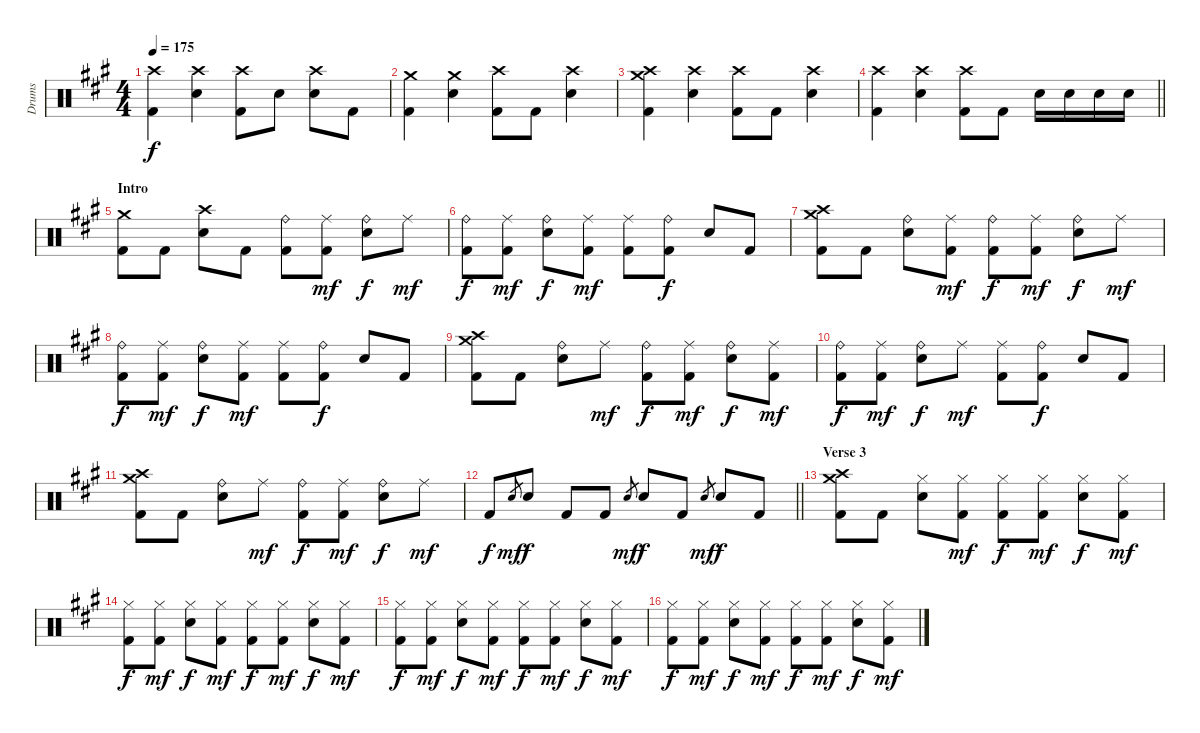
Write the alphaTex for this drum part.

\track ("Drums" "Drums") {instrument percussion}
\staff {score}
\articulation defaults
\ts (4 4)
\tempo 175
\clef neutral
\ks f#minor
("Crash high (hit)" "Kick (hit) 2").4{dy f} ("Crash high (hit)" "Electric Snare (hit)").4 ("Crash high (hit)" "Kick (hit) 2").8 "Electric Snare (hit)".8 ("Crash high (hit)" "Electric Snare (hit)").8 "Kick (hit) 2".8 |
("Crash medium (hit)" "Kick (hit) 2").4 ("Crash medium (hit)" "Electric Snare (hit)").4 ("Crash high (hit)" "Kick (hit) 2").8 "Kick (hit) 2".8 ("Crash high (hit)" "Electric Snare (hit)").4 |
("Crash high (hit)" "Crash medium (hit)" "Kick (hit) 2").4 ("Crash high (hit)" "Electric Snare (hit)").4 ("Crash high (hit)" "Kick (hit) 2").8 "Kick (hit) 2".8 ("Crash high (hit)" "Electric Snare (hit)").4 |
\barLineRight lightlight
("Crash high (hit)" "Kick (hit) 2").4 ("Crash high (hit)" "Electric Snare (hit)").4 ("Crash high (hit)" "Kick (hit) 2").8 "Kick (hit) 2".8 "Electric Snare (hit)".16 "Electric Snare (hit)".16 "Electric Snare (hit)".16 "Electric Snare (hit)".16 |
\section ("" "Intro")
("Crash medium (hit)" "Kick (hit) 2").8 "Kick (hit) 2".8 ("Crash high (hit)" "Electric Snare (hit)").8 "Kick (hit) 2".8 ("Ride (bell)" "Kick (hit) 2").8 ("Ride (middle)" "Kick (hit) 2").8{dy mf} ("Ride (bell)" "Electric Snare (hit)").8{dy f} "Ride (middle)".8{dy mf} |
("Ride (bell)" "Kick (hit) 2").8{dy f} ("Ride (middle)" "Kick (hit) 2").8{dy mf} ("Ride (bell)" "Electric Snare (hit)").8{dy f} ("Ride (middle)" "Kick (hit) 2").8{dy mf} ("Ride (middle)" "Kick (hit) 2").8 ("Ride (bell)" "Kick (hit) 2").8{dy f} "Electric Snare (hit)".8 "Kick (hit) 2".8 |
("Crash high (hit)" "Crash medium (hit)" "Kick (hit) 2").8 "Kick (hit) 2".8 ("Ride (bell)" "Electric Snare (hit)").8 ("Ride (middle)" "Kick (hit) 2").8{dy mf} ("Ride (bell)" "Kick (hit) 2").8{dy f} ("Ride (middle)" "Kick (hit) 2").8{dy mf} ("Ride (bell)" "Electric Snare (hit)").8{dy f} "Ride (middle)".8{dy mf} |
("Ride (bell)" "Kick (hit) 2").8{dy f} ("Ride (middle)" "Kick (hit) 2").8{dy mf} ("Ride (bell)" "Electric Snare (hit)").8{dy f} ("Ride (middle)" "Kick (hit) 2").8{dy mf} ("Ride (middle)" "Kick (hit) 2").8 ("Ride (bell)" "Kick (hit) 2").8{dy f} "Electric Snare (hit)".8 "Kick (hit) 2".8 |
("Crash high (hit)" "Crash medium (hit)" "Kick (hit) 2").8 "Kick (hit) 2".8 ("Ride (bell)" "Electric Snare (hit)").8 "Ride (middle)".8{dy mf} ("Ride (bell)" "Kick (hit) 2").8{dy f} ("Ride (middle)" "Kick (hit) 2").8{dy mf} ("Ride (bell)" "Electric Snare (hit)").8{dy f} ("Ride (middle)" "Kick (hit) 2").8{dy mf} |
("Ride (bell)" "Kick (hit) 2").8{dy f} ("Ride (middle)" "Kick (hit) 2").8{dy mf} ("Ride (bell)" "Electric Snare (hit)").8{dy f} "Ride (middle)".8{dy mf} ("Ride (middle)" "Kick (hit) 2").8 ("Ride (bell)" "Kick (hit) 2").8{dy f} "Electric Snare (hit)".8 "Kick (hit) 2".8 |
("Crash high (hit)" "Crash medium (hit)" "Kick (hit) 2").8 "Kick (hit) 2".8 ("Ride (bell)" "Electric Snare (hit)").8 "Ride (middle)".8{dy mf} ("Ride (bell)" "Kick (hit) 2").8{dy f} ("Ride (middle)" "Kick (hit) 2").8{dy mf} ("Ride (bell)" "Electric Snare (hit)").8{dy f} "Ride (middle)".8{dy mf} |
\barLineRight lightlight "Kick (hit) 2".8{dy f} "Electric Snare (hit)".8{gr dy mf} "Electric Snare (hit)".8{dy f} "Kick (hit) 2".8 "Kick (hit) 2".8 "Electric Snare (hit)".8{gr dy mf} "Electric Snare (hit)".8{dy f} "Kick (hit) 2".8 "Electric Snare (hit)".8{gr dy mf} "Electric Snare (hit)".8{dy f} "Kick (hit) 2".8
|
\section ("" "Verse 3")
("Crash high (hit)" "Crash medium (hit)" "Kick (hit) 2").8 "Kick (hit) 2".8 ("Hi-Hat (closed)" "Electric Snare (hit)").8 ("Hi-Hat (closed)" "Kick (hit) 2").8{dy mf} ("Hi-Hat (closed)" "Kick (hit) 2").8{dy f} ("Hi-Hat (closed)" "Kick (hit) 2").8{dy mf} ("Hi-Hat (closed)" "Electric Snare (hit)").8{dy f} ("Hi-Hat (closed)" "Kick (hit) 2").8{dy mf} |
("Hi-Hat (closed)" "Kick (hit) 2").8{dy f} ("Hi-Hat (closed)" "Kick (hit) 2").8{dy mf} ("Hi-Hat (closed)" "Electric Snare (hit)").8{dy f} ("Hi-Hat (closed)" "Kick (hit) 2").8{dy mf} ("Hi-Hat (closed)" "Kick (hit) 2").8{dy f} ("Hi-Hat (closed)" "Kick (hit) 2").8{dy mf} ("Hi-Hat (closed)" "Electric Snare (hit)").8{dy f} ("Hi-Hat (closed)" "Kick (hit) 2").8{dy mf} |
("Hi-Hat (closed)" "Kick (hit) 2").8{dy f} ("Hi-Hat (closed)" "Kick (hit) 2").8{dy mf} ("Hi-Hat (closed)" "Electric Snare (hit)").8{dy f} ("Hi-Hat (closed)" "Kick (hit) 2").8{dy mf} ("Hi-Hat (closed)" "Kick (hit) 2").8{dy f} ("Hi-Hat (closed)" "Kick (hit) 2").8{dy mf} ("Hi-Hat (closed)" "Electric Snare (hit)").8{dy f} ("Hi-Hat (closed)" "Kick (hit) 2").8{dy mf} |
("Hi-Hat (closed)" "Kick (hit) 2").8{dy f} ("Hi-Hat (closed)" "Kick (hit) 2").8{dy mf} ("Hi-Hat (closed)" "Electric Snare (hit)").8{dy f} ("Hi-Hat (closed)" "Kick (hit) 2").8{dy mf} ("Hi-Hat (closed)" "Kick (hit) 2").8{dy f} ("Hi-Hat (closed)" "Kick (hit) 2").8{dy mf} ("Hi-Hat (closed)" "Electric Snare (hit)").8{dy f} ("Hi-Hat (closed)" "Kick (hit) 2").8{dy mf}
